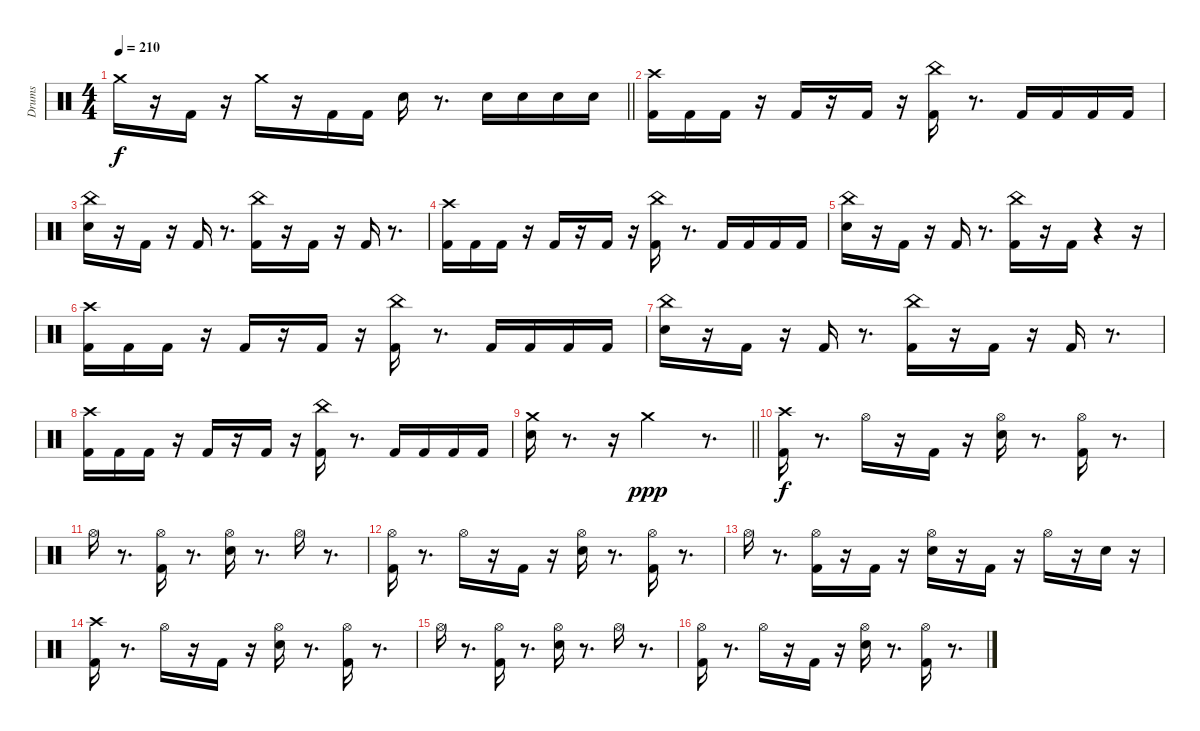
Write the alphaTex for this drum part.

\track ("Drums" "Drums") {instrument percussion}
\staff {score}
\articulation defaults
\ts (4 4)
\tempo 210
\clef neutral
\barLineRight lightlight
\ks c "Crash medium (hit)".16{dy f}
r.16 "Kick (hit) 2".16 r.16 "Crash medium (hit)".16 r.16 "Kick (hit) 2".16 "Kick (hit) 2".16 "Snare (hit) 2".16 r.8{d} "Snare (hit) 2".16 "Snare (hit) 2".16 "Snare (hit) 2".16 "Snare (hit) 2".16 |
\section ("" " ")
("Kick (hit) 2" "Crash high (hit)").16 "Kick (hit) 2".16 "Kick (hit) 2".16 r.16 "Kick (hit) 2".16 r.16 "Kick (hit) 2".16 r.16 ("Kick (hit) 2" "China (hit)").16 r.8{d} "Kick (hit) 2".16 "Kick (hit) 2".16 "Kick (hit) 2".16 "Kick (hit) 2".16 |
("Snare (hit) 2" "China (hit)").16 r.16 "Kick (hit) 2".16 r.16 "Kick (hit) 2".16 r.8{d} ("Kick (hit) 2" "China (hit)").16 r.16 "Kick (hit) 2".16 r.16 "Kick (hit) 2".16 r.8{d} |
("Kick (hit) 2" "Crash high (hit)").16 "Kick (hit) 2".16 "Kick (hit) 2".16 r.16 "Kick (hit) 2".16 r.16 "Kick (hit) 2".16 r.16 ("Kick (hit) 2" "China (hit)").16 r.8{d} "Kick (hit) 2".16 "Kick (hit) 2".16 "Kick (hit) 2".16 "Kick (hit) 2".16 |
("Snare (hit) 2" "China (hit)").16 r.16 "Kick (hit) 2".16 r.16 "Kick (hit) 2".16 r.8{d} ("Kick (hit) 2" "China (hit)").16 r.16 "Kick (hit) 2".16 r.4 r.16 |
("Kick (hit) 2" "Crash high (hit)").16 "Kick (hit) 2".16 "Kick (hit) 2".16 r.16 "Kick (hit) 2".16 r.16 "Kick (hit) 2".16 r.16 ("Kick (hit) 2" "China (hit)").16 r.8{d} "Kick (hit) 2".16 "Kick (hit) 2".16 "Kick (hit) 2".16 "Kick (hit) 2".16 |
("Snare (hit) 2" "China (hit)").16 r.16 "Kick (hit) 2".16 r.16 "Kick (hit) 2".16 r.8{d} ("Kick (hit) 2" "China (hit)").16 r.16 "Kick (hit) 2".16 r.16 "Kick (hit) 2".16 r.8{d} |
("Kick (hit) 2" "Crash high (hit)").16 "Kick (hit) 2".16 "Kick (hit) 2".16 r.16 "Kick (hit) 2".16 r.16 "Kick (hit) 2".16 r.16 ("Kick (hit) 2" "China (hit)").16 r.8{d} "Kick (hit) 2".16 "Kick (hit) 2".16 "Kick (hit) 2".16 "Kick (hit) 2".16 |
\barLineRight lightlight
("Snare (hit) 2" "Crash medium (hit)").16 r.8{d} r.16 "Crash medium (hit)".2{dy ppp} r.8{d} |
\section ("" " ")
("Kick (hit) 2" "Crash high (hit)").16{dy f} r.8{d} "Hi-Hat (open)".16 r.16 "Kick (hit) 2".16 r.16 ("Snare (hit) 2" "Hi-Hat (open)").16 r.8{d} ("Kick (hit) 2" "Hi-Hat (open)").16 r.8{d} |
"Hi-Hat (open)".16 r.8{d} ("Kick (hit) 2" "Hi-Hat (open)").16 r.8{d} ("Snare (hit) 2" "Hi-Hat (open)").16 r.8{d} "Hi-Hat (open)".16 r.8{d} |
("Kick (hit) 2" "Hi-Hat (open)").16 r.8{d} "Hi-Hat (open)".16 r.16 "Kick (hit) 2".16 r.16 ("Snare (hit) 2" "Hi-Hat (open)").16 r.8{d} ("Kick (hit) 2" "Hi-Hat (open)").16 r.8{d} |
"Hi-Hat (open)".16 r.8{d} ("Kick (hit) 2" "Hi-Hat (open)").16 r.16 "Kick (hit) 2".16 r.16 ("Snare (hit) 2" "Hi-Hat (open)").16 r.16 "Kick (hit) 2".16 r.16 "Hi-Hat (open)".16 r.16 "Snare (hit) 2".16 r.16 |
("Kick (hit) 2" "Crash high (hit)").16 r.8{d} "Hi-Hat (open)".16 r.16 "Kick (hit) 2".16 r.16 ("Snare (hit) 2" "Hi-Hat (open)").16 r.8{d} ("Kick (hit) 2" "Hi-Hat (open)").16 r.8{d} |
"Hi-Hat (open)".16 r.8{d} ("Kick (hit) 2" "Hi-Hat (open)").16 r.8{d} ("Snare (hit) 2" "Hi-Hat (open)").16 r.8{d} "Hi-Hat (open)".16 r.8{d} |
("Kick (hit) 2" "Hi-Hat (open)").16 r.8{d} "Hi-Hat (open)".16 r.16 "Kick (hit) 2".16 r.16 ("Snare (hit) 2" "Hi-Hat (open)").16 r.8{d} ("Kick (hit) 2" "Hi-Hat (open)").16 r.8{d}
